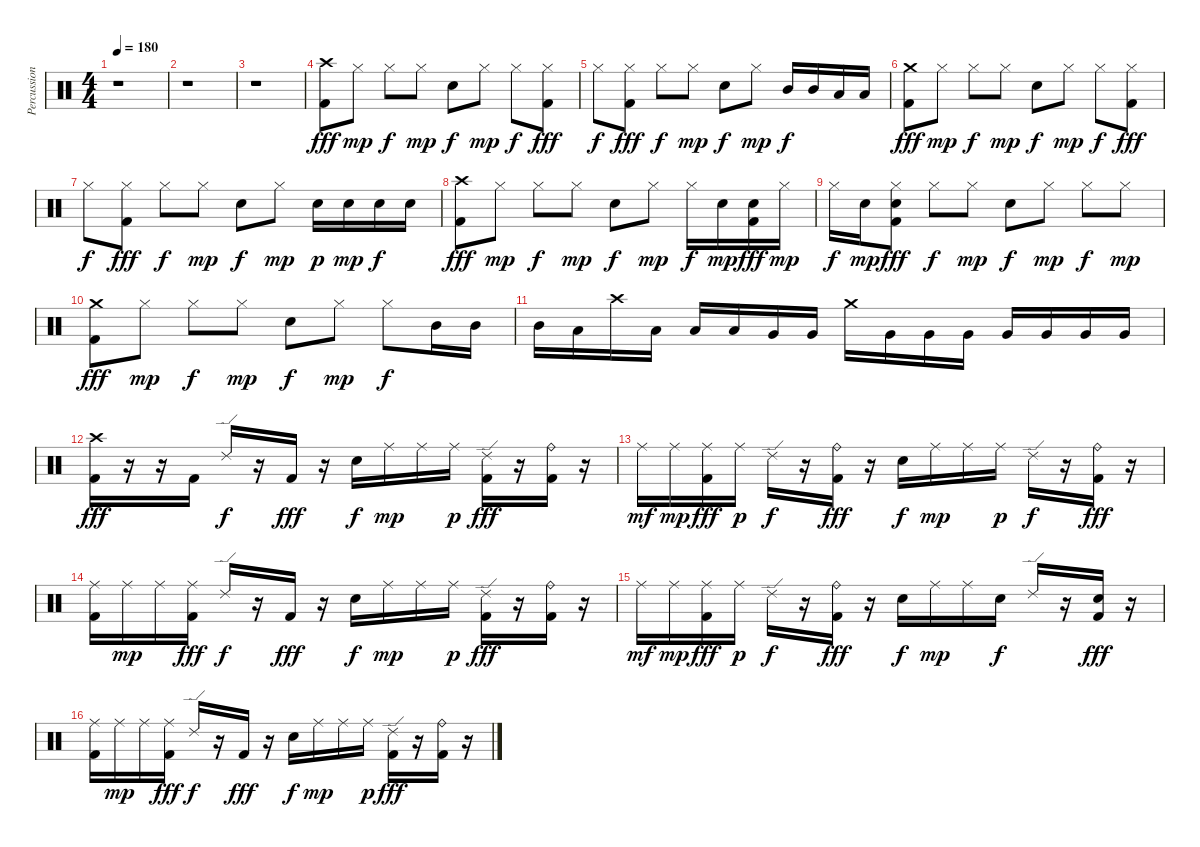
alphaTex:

\track ("Percussion" "Percussion") {instrument percussion}
\staff {score}
\articulation defaults
\ts (4 4)
\tempo 180
\clef neutral
\ks c
r.1{dy fff} |
r.1 |
r.1 |
("Crash high (hit)" "Kick (hit) 2").8 "Hi-Hat (closed)".8{dy mp} "Hi-Hat (closed)".8{dy f} "Hi-Hat (closed)".8{dy mp} "Electric Snare (hit)".8{dy f} "Hi-Hat (closed)".8{dy mp} "Hi-Hat (closed)".8{dy f} ("Hi-Hat (closed)" "Kick (hit) 2").8{dy fff} |
"Hi-Hat (closed)".8{dy f} ("Hi-Hat (closed)" "Kick (hit) 2").8{dy fff} "Hi-Hat (closed)".8{dy f} "Hi-Hat (closed)".8{dy mp} "Electric Snare (hit)".8{dy f} "Hi-Hat (closed)".8{dy mp} "Mid Tom (hit)".16{dy f} "Mid Tom (hit)".16 "Low Tom (hit)".16 "Low Tom (hit)".16 |
("Crash medium (hit)" "Kick (hit) 2").8{dy fff} "Hi-Hat (closed)".8{dy mp} "Hi-Hat (closed)".8{dy f} "Hi-Hat (closed)".8{dy mp} "Electric Snare (hit)".8{dy f} "Hi-Hat (closed)".8{dy mp} "Hi-Hat (closed)".8{dy f} ("Hi-Hat (closed)" "Kick (hit) 2").8{dy fff} |
"Hi-Hat (closed)".8{dy f} ("Hi-Hat (closed)" "Kick (hit) 2").8{dy fff} "Hi-Hat (closed)".8{dy f} "Hi-Hat (closed)".8{dy mp} "Electric Snare (hit)".8{dy f} "Hi-Hat (closed)".8{dy mp} "Electric Snare (hit)".16{dy p} "Electric Snare (hit)".16{dy mp} "Electric Snare (hit)".16{dy f} "Electric Snare (hit)".16 |
("Crash high (hit)" "Kick (hit) 2").8{dy fff} "Hi-Hat (closed)".8{dy mp} "Hi-Hat (closed)".8{dy f} "Hi-Hat (closed)".8{dy mp} "Electric Snare (hit)".8{dy f} "Hi-Hat (closed)".8{dy mp} "Hi-Hat (closed)".16{dy f} "Electric Snare (hit)".16{dy mp} ("Electric Snare (hit)" "Kick (hit) 2").16{dy fff} "Hi-Hat (closed)".16{dy mp} |
"Hi-Hat (closed)".16{dy f} "Electric Snare (hit)".16{dy mp} ("Hi-Hat (closed)" "Electric Snare (hit)" "Kick (hit) 2").8{dy fff} "Hi-Hat (closed)".8{dy f} "Hi-Hat (closed)".8{dy mp} "Electric Snare (hit)".8{dy f} "Hi-Hat (closed)".8{dy mp} "Hi-Hat (closed)".8{dy f} "Hi-Hat (closed)".8{dy mp} |
("Crash medium (hit)" "Kick (hit) 2").8{dy fff} "Hi-Hat (closed)".8{dy mp} "Hi-Hat (closed)".8{dy f} "Hi-Hat (closed)".8{dy mp} "Electric Snare (hit)".8{dy f} "Hi-Hat (closed)".8{dy mp} "Hi-Hat (closed)".8{dy f} "Mid Tom (hit)".16 "Mid Tom (hit)".16 |
"Mid Tom (hit)".16 "Low Tom (hit)".16 "Crash high (hit)".16 "Low Tom (hit)".16 "Low Tom (hit)".16 "Low Tom (hit)".16 "Very Low Tom (hit)".16 "Very Low Tom (hit)".16 "Crash medium (hit)".16 "Very Low Tom (hit)".16 "Very Low Tom (hit)".16 "Very Low Tom (hit)".16 "Very Low Tom (hit)".16 "Very Low Tom (hit)".16 "Very Low Tom (hit)".16 "Very Low Tom (hit)".16 |
("Crash high (hit)" "Kick (hit) 2").16{dy fff} r.16 r.16 "Kick (hit) 2".16 "Ride (edge) 2".16{dy f} r.16 "Kick (hit) 2".16{dy fff} r.16 "Electric Snare (hit)".16{dy f} "Ride (middle)".16{dy mp} "Ride (middle)".16 "Ride (middle)".16{dy p} ("Ride (edge) 2" "Kick (hit) 2").16{dy fff} r.16 ("Ride (bell)" "Kick (hit) 2").16 r.16 |
"Ride (middle)".16{dy mf} "Ride (middle)".16{dy mp} ("Ride (middle)" "Kick (hit) 2").16{dy fff} "Ride (middle)".16{dy p} "Ride (edge) 2".16{dy f} r.16 ("Ride (bell)" "Kick (hit) 2").16{dy fff} r.16 "Electric Snare (hit)".16{dy f} "Ride (middle)".16{dy mp} "Ride (middle)".16 "Ride (middle)".16{dy p} "Ride (edge) 2".16{dy f} r.16 ("Ride (bell)" "Kick (hit) 2").16{dy fff} r.16 |
("Ride (middle)" "Kick (hit) 2").16 "Ride (middle)".16{dy mp} "Ride (middle)".16 ("Ride (middle)" "Kick (hit) 2").16{dy fff} "Ride (edge) 2".16{dy f} r.16 "Kick (hit) 2".16{dy fff} r.16 "Electric Snare (hit)".16{dy f} "Ride (middle)".16{dy mp} "Ride (middle)".16 "Ride (middle)".16{dy p} ("Ride (edge) 2" "Kick (hit) 2").16{dy fff} r.16 ("Ride (bell)" "Kick (hit) 2").16 r.16 |
"Ride (middle)".16{dy mf} "Ride (middle)".16{dy mp} ("Ride (middle)" "Kick (hit) 2").16{dy fff} "Ride (middle)".16{dy p} "Ride (edge) 2".16{dy f} r.16 ("Ride (bell)" "Kick (hit) 2").16{dy fff} r.16 "Electric Snare (hit)".16{dy f} "Ride (middle)".16{dy mp} "Ride (middle)".16 "Electric Snare (hit)".16{dy f} "Ride (edge) 2".16 r.16 ("Electric Snare (hit)" "Kick (hit) 2").16{dy fff} r.16 |
("Ride (middle)" "Kick (hit) 2").16 "Ride (middle)".16{dy mp} "Ride (middle)".16 ("Ride (middle)" "Kick (hit) 2").16{dy fff} "Ride (edge) 2".16{dy f} r.16 "Kick (hit) 2".16{dy fff} r.16 "Electric Snare (hit)".16{dy f} "Ride (middle)".16{dy mp} "Ride (middle)".16 "Ride (middle)".16{dy p} ("Ride (edge) 2" "Kick (hit) 2").16{dy fff} r.16 ("Ride (bell)" "Kick (hit) 2").16 r.16
